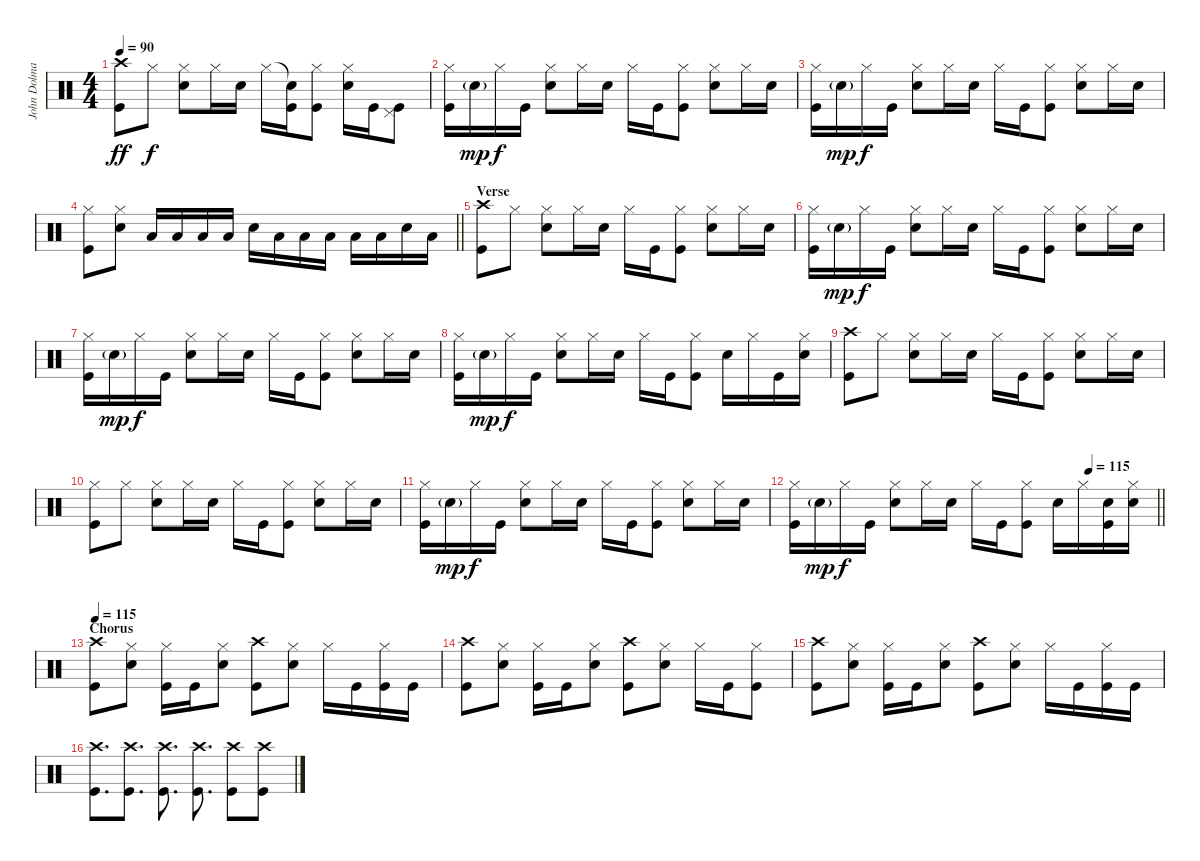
\track ("John Dolmayan" "John Dolma") {instrument percussion}
\staff {score}
\articulation defaults
\ts (4 4)
\tempo 90
\clef neutral
\ks c
("Crash high (hit)" "Kick (hit)").8{dy ff} "Hi-Hat (closed)".8{dy f} ("Hi-Hat (closed)" "Snare (hit) 2").8 "Hi-Hat (closed)".16 "Snare (hit) 2".16 "Hi-Hat (closed)".16 ("Snare (hit)"{t} "Kick (hit)").16 ("Hi-Hat (closed)" "Kick (hit)").8 ("Hi-Hat (closed)" "Snare (hit) 2").16 "Kick (hit)".16 ("Pedal Hi-Hat (hit)" "Kick (hit)").8 |
("Hi-Hat (closed)" "Kick (hit)").16 "Snare (hit) 2"{g}.16{dy mp} "Hi-Hat (closed)".16{dy f} "Kick (hit)".16 ("Hi-Hat (closed)" "Snare (hit) 2").8 "Hi-Hat (closed)".16 "Snare (hit) 2".16 "Hi-Hat (closed)".16 "Kick (hit)".16 ("Hi-Hat (closed)" "Kick (hit)").8 ("Hi-Hat (closed)" "Snare (hit) 2").8 "Hi-Hat (closed)".16 "Snare (hit) 2".16 |
("Hi-Hat (closed)" "Kick (hit)").16 "Snare (hit) 2"{g}.16{dy mp} "Hi-Hat (closed)".16{dy f} "Kick (hit)".16 ("Hi-Hat (closed)" "Snare (hit) 2").8 "Hi-Hat (closed)".16 "Snare (hit) 2".16 "Hi-Hat (closed)".16 "Kick (hit)".16 ("Hi-Hat (closed)" "Kick (hit)").8 ("Hi-Hat (closed)" "Snare (hit) 2").8 "Hi-Hat (closed)".16 "Snare (hit) 2".16 |
\barLineRight lightlight
("Hi-Hat (closed)" "Kick (hit)").8 ("Hi-Hat (closed)" "Snare (hit) 2").8 "Low Tom (hit)".16 "Low Tom (hit)".16 "Low Tom (hit)".16 "Low Tom (hit)".16 "Snare (hit) 2".16 "Low Tom (hit)".16 "Low Tom (hit)".16 "Low Tom (hit)".16 "Low Tom (hit)".16 "Low Tom (hit)".16 "Snare (hit) 2".16 "Low Tom (hit)".16 |
\section ("" "Verse")
("Crash high (hit)" "Kick (hit)").8 "Hi-Hat (closed)".8 ("Hi-Hat (closed)" "Snare (hit) 2").8 "Hi-Hat (closed)".16 "Snare (hit) 2".16 "Hi-Hat (closed)".16 "Kick (hit)".16 ("Hi-Hat (closed)" "Kick (hit)").8 ("Hi-Hat (closed)" "Snare (hit) 2").8 "Hi-Hat (closed)".16 "Snare (hit) 2".16 |
("Hi-Hat (closed)" "Kick (hit)").16 "Snare (hit) 2"{g}.16{dy mp} "Hi-Hat (closed)".16{dy f} "Kick (hit)".16 ("Hi-Hat (closed)" "Snare (hit) 2").8 "Hi-Hat (closed)".16 "Snare (hit) 2".16 "Hi-Hat (closed)".16 "Kick (hit)".16 ("Hi-Hat (closed)" "Kick (hit)").8 ("Hi-Hat (closed)" "Snare (hit) 2").8 "Hi-Hat (closed)".16 "Snare (hit) 2".16 |
("Hi-Hat (closed)" "Kick (hit)").16 "Snare (hit) 2"{g}.16{dy mp} "Hi-Hat (closed)".16{dy f} "Kick (hit)".16 ("Hi-Hat (closed)" "Snare (hit) 2").8 "Hi-Hat (closed)".16 "Snare (hit) 2".16 "Hi-Hat (closed)".16 "Kick (hit)".16 ("Hi-Hat (closed)" "Kick (hit)").8 ("Hi-Hat (closed)" "Snare (hit) 2").8 "Hi-Hat (closed)".16 "Snare (hit) 2".16 |
("Hi-Hat (closed)" "Kick (hit)").16 "Snare (hit) 2"{g}.16{dy mp} "Hi-Hat (closed)".16{dy f} "Kick (hit)".16 ("Hi-Hat (closed)" "Snare (hit) 2").8 "Hi-Hat (closed)".16 "Snare (hit) 2".16 "Hi-Hat (closed)".16 "Kick (hit)".16 ("Hi-Hat (closed)" "Kick (hit)").8 "Snare (hit) 2".16 "Hi-Hat (closed)".16 "Kick (hit)".16 ("Hi-Hat (closed)" "Snare (hit) 2").16 |
("Crash high (hit)" "Kick (hit)").8 "Hi-Hat (closed)".8 ("Hi-Hat (closed)" "Snare (hit) 2").8 "Hi-Hat (closed)".16 "Snare (hit) 2".16 "Hi-Hat (closed)".16 "Kick (hit)".16 ("Hi-Hat (closed)" "Kick (hit)").8 ("Hi-Hat (closed)" "Snare (hit) 2").8 "Hi-Hat (closed)".16 "Snare (hit) 2".16 |
("Hi-Hat (closed)" "Kick (hit)").8 "Hi-Hat (closed)".8 ("Hi-Hat (closed)" "Snare (hit) 2").8 "Hi-Hat (closed)".16 "Snare (hit) 2".16 "Hi-Hat (closed)".16 "Kick (hit)".16 ("Hi-Hat (closed)" "Kick (hit)").8 ("Hi-Hat (closed)" "Snare (hit) 2").8 "Hi-Hat (closed)".16 "Snare (hit) 2".16 |
("Hi-Hat (closed)" "Kick (hit)").16 "Snare (hit) 2"{g}.16{dy mp} "Hi-Hat (closed)".16{dy f} "Kick (hit)".16 ("Hi-Hat (closed)" "Snare (hit) 2").8 "Hi-Hat (closed)".16 "Snare (hit) 2".16 "Hi-Hat (closed)".16 "Kick (hit)".16 ("Hi-Hat (closed)" "Kick (hit)").8 ("Hi-Hat (closed)" "Snare (hit) 2").8 "Hi-Hat (closed)".16 "Snare (hit) 2".16 |
\tempo (115 0.8125)
\barLineRight lightlight
("Hi-Hat (closed)" "Kick (hit)").16 "Snare (hit) 2"{g}.16{dy mp} "Hi-Hat (closed)".16{dy f} "Kick (hit)".16 ("Hi-Hat (closed)" "Snare (hit) 2").8 "Hi-Hat (closed)".16 "Snare (hit) 2".16 "Hi-Hat (closed)".16 "Kick (hit)".16 ("Hi-Hat (closed)" "Kick (hit)").8 "Snare (hit) 2".16 "Hi-Hat (closed)".16 ("Snare (hit) 2" "Kick (hit)").16 ("Hi-Hat (closed)" "Snare (hit) 2").16 |
\section ("" "Chorus")
\tempo 115
("Crash high (hit)" "Kick (hit)").8 ("Hi-Hat (closed)" "Snare (hit) 2").8 ("Hi-Hat (closed)" "Kick (hit)").16 "Kick (hit)".16 ("Hi-Hat (closed)" "Snare (hit) 2").8 ("Crash high (hit)" "Kick (hit)").8 ("Hi-Hat (closed)" "Snare (hit) 2").8 "Hi-Hat (closed)".16 "Kick (hit)".16 ("Hi-Hat (closed)" "Kick (hit)").16 "Kick (hit)".16 |
("Crash high (hit)" "Kick (hit)").8 ("Hi-Hat (closed)" "Snare (hit) 2").8 ("Hi-Hat (closed)" "Kick (hit)").16 "Kick (hit)".16 ("Hi-Hat (closed)" "Snare (hit) 2").8 ("Crash high (hit)" "Kick (hit)").8 ("Hi-Hat (closed)" "Snare (hit) 2").8 "Hi-Hat (closed)".16 "Kick (hit)".16 ("Hi-Hat (closed)" "Kick (hit)").8 |
("Crash high (hit)" "Kick (hit)").8 ("Hi-Hat (closed)" "Snare (hit) 2").8 ("Hi-Hat (closed)" "Kick (hit)").16 "Kick (hit)".16 ("Hi-Hat (closed)" "Snare (hit) 2").8 ("Crash high (hit)" "Kick (hit)").8 ("Hi-Hat (closed)" "Snare (hit) 2").8 "Hi-Hat (closed)".16 "Kick (hit)".16 ("Hi-Hat (closed)" "Kick (hit)").16 "Kick (hit)".16 |
("Crash high (hit)" "Kick (hit)").8{d} ("Crash high (hit)" "Kick (hit)").8{d} ("Crash high (hit)" "Kick (hit)").8{d} ("Crash high (hit)" "Kick (hit)").8{d} ("Crash high (hit)" "Kick (hit)").8 ("Crash high (hit)" "Kick (hit)").8
